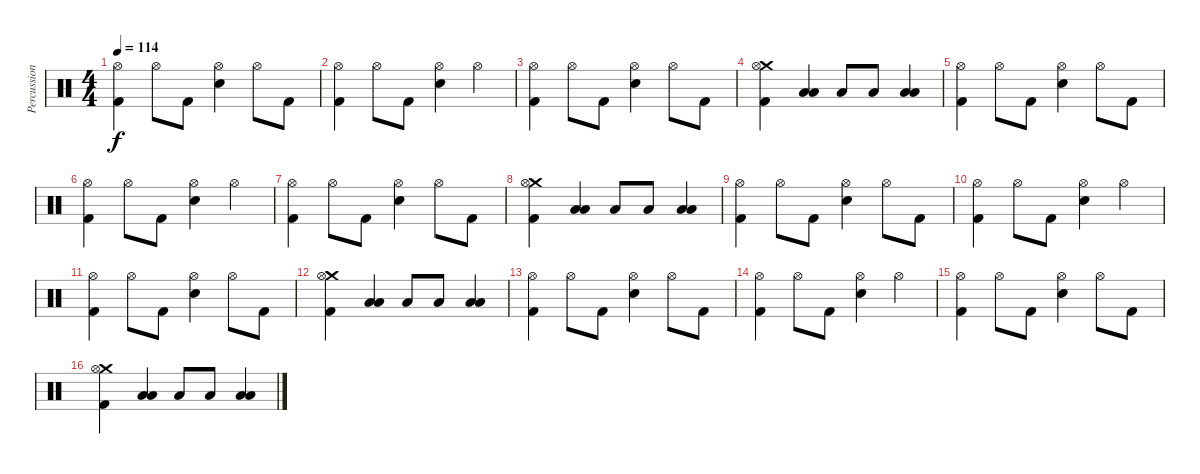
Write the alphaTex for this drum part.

\track ("Percussion" "Percussion") {instrument percussion}
\staff {score}
\articulation defaults
\ts (4 4)
\tempo 114
\clef neutral
\ks c
("Kick (hit) 2" "Hi-Hat (open)").4{dy f} "Hi-Hat (open)".8 "Kick (hit) 2".8 ("Electric Snare (hit)" "Hi-Hat (open)").4 "Hi-Hat (open)".8 "Kick (hit) 2".8 |
("Kick (hit) 2" "Hi-Hat (open)").4 "Hi-Hat (open)".8 "Kick (hit) 2".8 ("Electric Snare (hit)" "Hi-Hat (open)").4 "Hi-Hat (open)".4 |
("Kick (hit) 2" "Hi-Hat (open)").4 "Hi-Hat (open)".8 "Kick (hit) 2".8 ("Electric Snare (hit)" "Hi-Hat (open)").4 "Hi-Hat (open)".8 "Kick (hit) 2".8 |
("Crash medium (hit)" "Hi-Hat (open)" "Kick (hit) 2").4 ("Low Tom (hit)" "Low Floor Tom (hit)").4 "Low Tom (hit)".8 "Low Floor Tom (hit)".8 ("Low Floor Tom (hit)" "Low Tom (hit)").4 |
("Kick (hit) 2" "Hi-Hat (open)").4 "Hi-Hat (open)".8 "Kick (hit) 2".8 ("Electric Snare (hit)" "Hi-Hat (open)").4 "Hi-Hat (open)".8 "Kick (hit) 2".8 |
("Kick (hit) 2" "Hi-Hat (open)").4 "Hi-Hat (open)".8 "Kick (hit) 2".8 ("Electric Snare (hit)" "Hi-Hat (open)").4 "Hi-Hat (open)".4 |
("Kick (hit) 2" "Hi-Hat (open)").4 "Hi-Hat (open)".8 "Kick (hit) 2".8 ("Electric Snare (hit)" "Hi-Hat (open)").4 "Hi-Hat (open)".8 "Kick (hit) 2".8 |
("Crash medium (hit)" "Hi-Hat (open)" "Kick (hit) 2").4 ("Low Tom (hit)" "Low Floor Tom (hit)").4 "Low Tom (hit)".8 "Low Floor Tom (hit)".8 ("Low Floor Tom (hit)" "Low Tom (hit)").4 |
("Kick (hit) 2" "Hi-Hat (open)").4 "Hi-Hat (open)".8 "Kick (hit) 2".8 ("Electric Snare (hit)" "Hi-Hat (open)").4 "Hi-Hat (open)".8 "Kick (hit) 2".8 |
("Kick (hit) 2" "Hi-Hat (open)").4 "Hi-Hat (open)".8 "Kick (hit) 2".8 ("Electric Snare (hit)" "Hi-Hat (open)").4 "Hi-Hat (open)".4 |
("Kick (hit) 2" "Hi-Hat (open)").4 "Hi-Hat (open)".8 "Kick (hit) 2".8 ("Electric Snare (hit)" "Hi-Hat (open)").4 "Hi-Hat (open)".8 "Kick (hit) 2".8 |
("Crash medium (hit)" "Hi-Hat (open)" "Kick (hit) 2").4 ("Low Tom (hit)" "Low Floor Tom (hit)").4 "Low Tom (hit)".8 "Low Floor Tom (hit)".8 ("Low Floor Tom (hit)" "Low Tom (hit)").4 |
("Kick (hit) 2" "Hi-Hat (open)").4 "Hi-Hat (open)".8 "Kick (hit) 2".8 ("Electric Snare (hit)" "Hi-Hat (open)").4 "Hi-Hat (open)".8 "Kick (hit) 2".8 |
("Kick (hit) 2" "Hi-Hat (open)").4 "Hi-Hat (open)".8 "Kick (hit) 2".8 ("Electric Snare (hit)" "Hi-Hat (open)").4 "Hi-Hat (open)".4 |
("Kick (hit) 2" "Hi-Hat (open)").4 "Hi-Hat (open)".8 "Kick (hit) 2".8 ("Electric Snare (hit)" "Hi-Hat (open)").4 "Hi-Hat (open)".8 "Kick (hit) 2".8 |
("Crash medium (hit)" "Hi-Hat (open)" "Kick (hit) 2").4 ("Low Tom (hit)" "Low Floor Tom (hit)").4 "Low Tom (hit)".8 "Low Floor Tom (hit)".8 ("Low Floor Tom (hit)" "Low Tom (hit)").4
